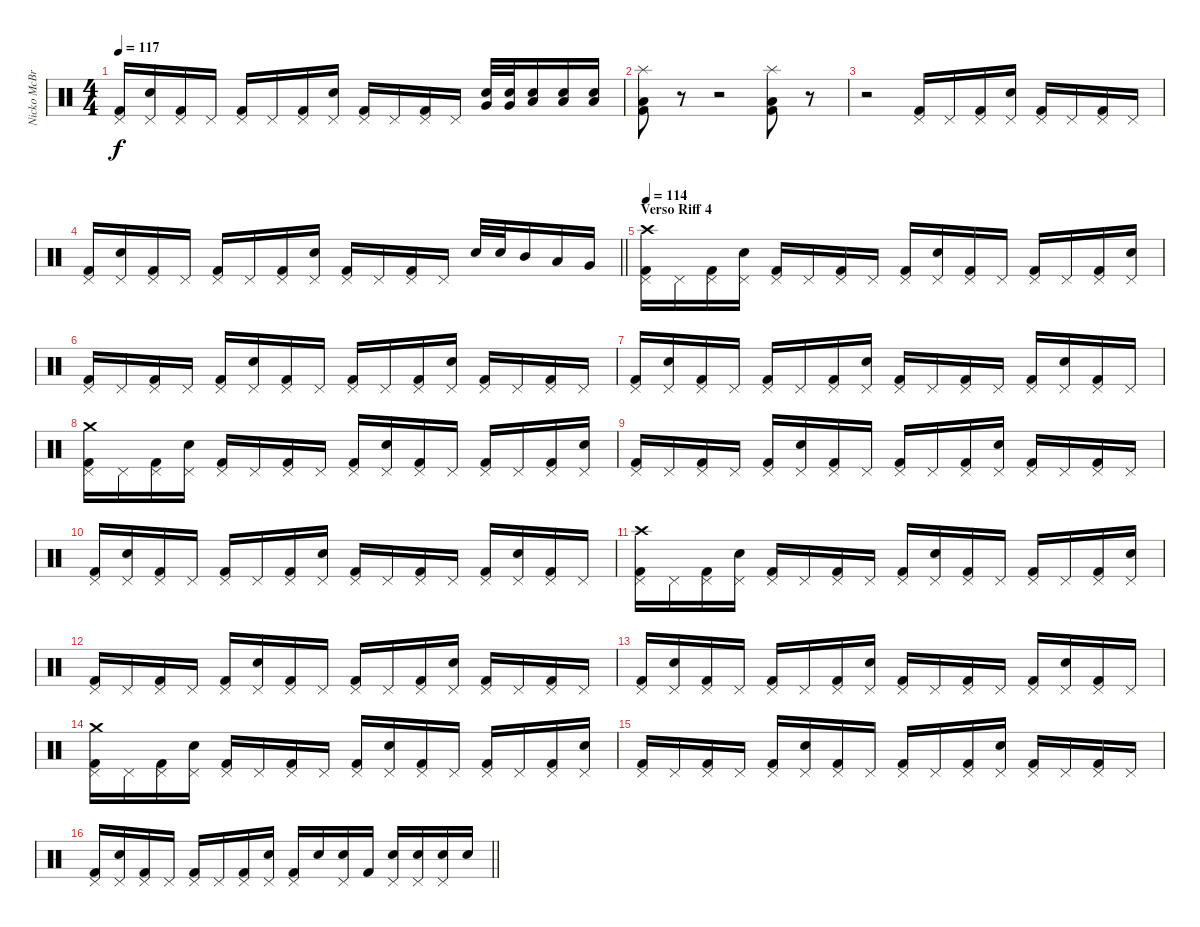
\track ("Nicko McBrain" "Nicko McBr") {instrument percussion}
\staff {score}
\articulation defaults
\ts (4 4)
\tempo 117
\clef neutral
\ks c
("Kick (hit) 2" "Pedal Hi-Hat (hit)").16{dy f} ("Snare (hit) 2" "Pedal Hi-Hat (hit)").16 ("Kick (hit) 2" "Pedal Hi-Hat (hit)").16 "Pedal Hi-Hat (hit)".16 ("Kick (hit) 2" "Pedal Hi-Hat (hit)").16 "Pedal Hi-Hat (hit)".16 ("Kick (hit) 2" "Pedal Hi-Hat (hit)").16 ("Snare (hit) 2" "Pedal Hi-Hat (hit)").16 ("Kick (hit) 2" "Pedal Hi-Hat (hit)").16 "Pedal Hi-Hat (hit)".16 ("Kick (hit) 2" "Pedal Hi-Hat (hit)").16 "Pedal Hi-Hat (hit)".16 ("Snare (hit) 2" "Very Low Tom (hit)").32 ("Snare (hit) 2" "Very Low Tom (hit)").32 ("Snare (hit) 2" "Low Floor Tom (hit)").16 ("Snare (hit) 2" "Low Tom (hit)").16 ("Snare (hit) 2" "Low Tom (hit)").16 |
("Low Floor Tom (hit)" "Kick (hit) 2" "Splash (hit)").8 r.8 r.2 ("Low Floor Tom (hit)" "Kick (hit) 2" "Splash (hit)").8 r.8 |
r.2 ("Kick (hit) 2" "Pedal Hi-Hat (hit)").16 "Pedal Hi-Hat (hit)".16 ("Kick (hit) 2" "Pedal Hi-Hat (hit)").16 ("Snare (hit) 2" "Pedal Hi-Hat (hit)").16 ("Kick (hit) 2" "Pedal Hi-Hat (hit)").16 "Pedal Hi-Hat (hit)".16 ("Kick (hit) 2" "Pedal Hi-Hat (hit)").16 "Pedal Hi-Hat (hit)".16 |
\barLineRight lightlight
("Kick (hit) 2" "Pedal Hi-Hat (hit)").16 ("Snare (hit) 2" "Pedal Hi-Hat (hit)").16 ("Kick (hit) 2" "Pedal Hi-Hat (hit)").16 "Pedal Hi-Hat (hit)".16 ("Kick (hit) 2" "Pedal Hi-Hat (hit)").16 "Pedal Hi-Hat (hit)".16 ("Kick (hit) 2" "Pedal Hi-Hat (hit)").16 ("Snare (hit) 2" "Pedal Hi-Hat (hit)").16 ("Kick (hit) 2" "Pedal Hi-Hat (hit)").16 "Pedal Hi-Hat (hit)".16 ("Kick (hit) 2" "Pedal Hi-Hat (hit)").16 "Pedal Hi-Hat (hit)".16 "Snare (hit) 2".32 "Snare (hit) 2".32 "Mid Tom (hit)".16 "Low Tom (hit)".16 "Very Low Tom (hit)".16 |
\section ("" "Verso Riff 4")
\tempo 114
("Kick (hit) 2" "Pedal Hi-Hat (hit)" "Crash high (hit)").16 "Pedal Hi-Hat (hit)".16 ("Kick (hit) 2" "Pedal Hi-Hat (hit)").16 ("Snare (hit) 2" "Pedal Hi-Hat (hit)").16 ("Kick (hit) 2" "Pedal Hi-Hat (hit)").16 "Pedal Hi-Hat (hit)".16 ("Kick (hit) 2" "Pedal Hi-Hat (hit)").16 "Pedal Hi-Hat (hit)".16 ("Kick (hit) 2" "Pedal Hi-Hat (hit)").16 ("Snare (hit) 2" "Pedal Hi-Hat (hit)").16 ("Kick (hit) 2" "Pedal Hi-Hat (hit)").16 "Pedal Hi-Hat (hit)".16 ("Kick (hit) 2" "Pedal Hi-Hat (hit)").16 "Pedal Hi-Hat (hit)".16 ("Kick (hit) 2" "Pedal Hi-Hat (hit)").16 ("Snare (hit) 2" "Pedal Hi-Hat (hit)").16 |
("Kick (hit) 2" "Pedal Hi-Hat (hit)").16 "Pedal Hi-Hat (hit)".16 ("Kick (hit) 2" "Pedal Hi-Hat (hit)").16 "Pedal Hi-Hat (hit)".16 ("Kick (hit) 2" "Pedal Hi-Hat (hit)").16 ("Snare (hit) 2" "Pedal Hi-Hat (hit)").16 ("Kick (hit) 2" "Pedal Hi-Hat (hit)").16 "Pedal Hi-Hat (hit)".16 ("Kick (hit) 2" "Pedal Hi-Hat (hit)").16 "Pedal Hi-Hat (hit)".16 ("Kick (hit) 2" "Pedal Hi-Hat (hit)").16 ("Snare (hit) 2" "Pedal Hi-Hat (hit)").16 ("Kick (hit) 2" "Pedal Hi-Hat (hit)").16 "Pedal Hi-Hat (hit)".16 ("Kick (hit) 2" "Pedal Hi-Hat (hit)").16 "Pedal Hi-Hat (hit)".16 |
("Kick (hit) 2" "Pedal Hi-Hat (hit)").16 ("Snare (hit) 2" "Pedal Hi-Hat (hit)").16 ("Kick (hit) 2" "Pedal Hi-Hat (hit)").16 "Pedal Hi-Hat (hit)".16 ("Kick (hit) 2" "Pedal Hi-Hat (hit)").16 "Pedal Hi-Hat (hit)".16 ("Kick (hit) 2" "Pedal Hi-Hat (hit)").16 ("Snare (hit) 2" "Pedal Hi-Hat (hit)").16 ("Kick (hit) 2" "Pedal Hi-Hat (hit)").16 "Pedal Hi-Hat (hit)".16 ("Kick (hit) 2" "Pedal Hi-Hat (hit)").16 "Pedal Hi-Hat (hit)".16 ("Kick (hit) 2" "Pedal Hi-Hat (hit)").16 ("Snare (hit) 2" "Pedal Hi-Hat (hit)").16 ("Kick (hit) 2" "Pedal Hi-Hat (hit)").16 "Pedal Hi-Hat (hit)".16 |
("Kick (hit) 2" "Pedal Hi-Hat (hit)" "Crash medium (hit)").16 "Pedal Hi-Hat (hit)".16 ("Kick (hit) 2" "Pedal Hi-Hat (hit)").16 ("Snare (hit) 2" "Pedal Hi-Hat (hit)").16 ("Kick (hit) 2" "Pedal Hi-Hat (hit)").16 "Pedal Hi-Hat (hit)".16 ("Kick (hit) 2" "Pedal Hi-Hat (hit)").16 "Pedal Hi-Hat (hit)".16 ("Kick (hit) 2" "Pedal Hi-Hat (hit)").16 ("Snare (hit) 2" "Pedal Hi-Hat (hit)").16 ("Kick (hit) 2" "Pedal Hi-Hat (hit)").16 "Pedal Hi-Hat (hit)".16 ("Kick (hit) 2" "Pedal Hi-Hat (hit)").16 "Pedal Hi-Hat (hit)".16 ("Kick (hit) 2" "Pedal Hi-Hat (hit)").16 ("Snare (hit) 2" "Pedal Hi-Hat (hit)").16 |
("Kick (hit) 2" "Pedal Hi-Hat (hit)").16 "Pedal Hi-Hat (hit)".16 ("Kick (hit) 2" "Pedal Hi-Hat (hit)").16 "Pedal Hi-Hat (hit)".16 ("Kick (hit) 2" "Pedal Hi-Hat (hit)").16 ("Snare (hit) 2" "Pedal Hi-Hat (hit)").16 ("Kick (hit) 2" "Pedal Hi-Hat (hit)").16 "Pedal Hi-Hat (hit)".16 ("Kick (hit) 2" "Pedal Hi-Hat (hit)").16 "Pedal Hi-Hat (hit)".16 ("Kick (hit) 2" "Pedal Hi-Hat (hit)").16 ("Snare (hit) 2" "Pedal Hi-Hat (hit)").16 ("Kick (hit) 2" "Pedal Hi-Hat (hit)").16 "Pedal Hi-Hat (hit)".16 ("Kick (hit) 2" "Pedal Hi-Hat (hit)").16 "Pedal Hi-Hat (hit)".16 |
("Kick (hit) 2" "Pedal Hi-Hat (hit)").16 ("Snare (hit) 2" "Pedal Hi-Hat (hit)").16 ("Kick (hit) 2" "Pedal Hi-Hat (hit)").16 "Pedal Hi-Hat (hit)".16 ("Kick (hit) 2" "Pedal Hi-Hat (hit)").16 "Pedal Hi-Hat (hit)".16 ("Kick (hit) 2" "Pedal Hi-Hat (hit)").16 ("Snare (hit) 2" "Pedal Hi-Hat (hit)").16 ("Kick (hit) 2" "Pedal Hi-Hat (hit)").16 "Pedal Hi-Hat (hit)".16 ("Kick (hit) 2" "Pedal Hi-Hat (hit)").16 "Pedal Hi-Hat (hit)".16 ("Kick (hit) 2" "Pedal Hi-Hat (hit)").16 ("Snare (hit) 2" "Pedal Hi-Hat (hit)").16 ("Kick (hit) 2" "Pedal Hi-Hat (hit)").16 "Pedal Hi-Hat (hit)".16 |
("Kick (hit) 2" "Pedal Hi-Hat (hit)" "Crash high (hit)").16 "Pedal Hi-Hat (hit)".16 ("Kick (hit) 2" "Pedal Hi-Hat (hit)").16 ("Snare (hit) 2" "Pedal Hi-Hat (hit)").16 ("Kick (hit) 2" "Pedal Hi-Hat (hit)").16 "Pedal Hi-Hat (hit)".16 ("Kick (hit) 2" "Pedal Hi-Hat (hit)").16 "Pedal Hi-Hat (hit)".16 ("Kick (hit) 2" "Pedal Hi-Hat (hit)").16 ("Snare (hit) 2" "Pedal Hi-Hat (hit)").16 ("Kick (hit) 2" "Pedal Hi-Hat (hit)").16 "Pedal Hi-Hat (hit)".16 ("Kick (hit) 2" "Pedal Hi-Hat (hit)").16 "Pedal Hi-Hat (hit)".16 ("Kick (hit) 2" "Pedal Hi-Hat (hit)").16 ("Snare (hit) 2" "Pedal Hi-Hat (hit)").16 |
("Kick (hit) 2" "Pedal Hi-Hat (hit)").16 "Pedal Hi-Hat (hit)".16 ("Kick (hit) 2" "Pedal Hi-Hat (hit)").16 "Pedal Hi-Hat (hit)".16 ("Kick (hit) 2" "Pedal Hi-Hat (hit)").16 ("Snare (hit) 2" "Pedal Hi-Hat (hit)").16 ("Kick (hit) 2" "Pedal Hi-Hat (hit)").16 "Pedal Hi-Hat (hit)".16 ("Kick (hit) 2" "Pedal Hi-Hat (hit)").16 "Pedal Hi-Hat (hit)".16 ("Kick (hit) 2" "Pedal Hi-Hat (hit)").16 ("Snare (hit) 2" "Pedal Hi-Hat (hit)").16 ("Kick (hit) 2" "Pedal Hi-Hat (hit)").16 "Pedal Hi-Hat (hit)".16 ("Kick (hit) 2" "Pedal Hi-Hat (hit)").16 "Pedal Hi-Hat (hit)".16 |
("Kick (hit) 2" "Pedal Hi-Hat (hit)").16 ("Snare (hit) 2" "Pedal Hi-Hat (hit)").16 ("Kick (hit) 2" "Pedal Hi-Hat (hit)").16 "Pedal Hi-Hat (hit)".16 ("Kick (hit) 2" "Pedal Hi-Hat (hit)").16 "Pedal Hi-Hat (hit)".16 ("Kick (hit) 2" "Pedal Hi-Hat (hit)").16 ("Snare (hit) 2" "Pedal Hi-Hat (hit)").16 ("Kick (hit) 2" "Pedal Hi-Hat (hit)").16 "Pedal Hi-Hat (hit)".16 ("Kick (hit) 2" "Pedal Hi-Hat (hit)").16 "Pedal Hi-Hat (hit)".16 ("Kick (hit) 2" "Pedal Hi-Hat (hit)").16 ("Snare (hit) 2" "Pedal Hi-Hat (hit)").16 ("Kick (hit) 2" "Pedal Hi-Hat (hit)").16 "Pedal Hi-Hat (hit)".16 |
("Kick (hit) 2" "Pedal Hi-Hat (hit)" "Crash medium (hit)").16 "Pedal Hi-Hat (hit)".16 ("Kick (hit) 2" "Pedal Hi-Hat (hit)").16 ("Snare (hit) 2" "Pedal Hi-Hat (hit)").16 ("Kick (hit) 2" "Pedal Hi-Hat (hit)").16 "Pedal Hi-Hat (hit)".16 ("Kick (hit) 2" "Pedal Hi-Hat (hit)").16 "Pedal Hi-Hat (hit)".16 ("Kick (hit) 2" "Pedal Hi-Hat (hit)").16 ("Snare (hit) 2" "Pedal Hi-Hat (hit)").16 ("Kick (hit) 2" "Pedal Hi-Hat (hit)").16 "Pedal Hi-Hat (hit)".16 ("Kick (hit) 2" "Pedal Hi-Hat (hit)").16 "Pedal Hi-Hat (hit)".16 ("Kick (hit) 2" "Pedal Hi-Hat (hit)").16 ("Snare (hit) 2" "Pedal Hi-Hat (hit)").16 |
("Kick (hit) 2" "Pedal Hi-Hat (hit)").16 "Pedal Hi-Hat (hit)".16 ("Kick (hit) 2" "Pedal Hi-Hat (hit)").16 "Pedal Hi-Hat (hit)".16 ("Kick (hit) 2" "Pedal Hi-Hat (hit)").16 ("Snare (hit) 2" "Pedal Hi-Hat (hit)").16 ("Kick (hit) 2" "Pedal Hi-Hat (hit)").16 "Pedal Hi-Hat (hit)".16 ("Kick (hit) 2" "Pedal Hi-Hat (hit)").16 "Pedal Hi-Hat (hit)".16 ("Kick (hit) 2" "Pedal Hi-Hat (hit)").16 ("Snare (hit) 2" "Pedal Hi-Hat (hit)").16 ("Kick (hit) 2" "Pedal Hi-Hat (hit)").16 "Pedal Hi-Hat (hit)".16 ("Kick (hit) 2" "Pedal Hi-Hat (hit)").16 "Pedal Hi-Hat (hit)".16 |
\barLineRight lightlight
("Kick (hit) 2" "Pedal Hi-Hat (hit)").16 ("Snare (hit) 2" "Pedal Hi-Hat (hit)").16 ("Kick (hit) 2" "Pedal Hi-Hat (hit)").16 "Pedal Hi-Hat (hit)".16 ("Kick (hit) 2" "Pedal Hi-Hat (hit)").16 "Pedal Hi-Hat (hit)".16 ("Kick (hit) 2" "Pedal Hi-Hat (hit)").16 ("Snare (hit) 2" "Pedal Hi-Hat (hit)").16 ("Kick (hit) 2" "Pedal Hi-Hat (hit)").16 "Snare (hit) 2".16 ("Snare (hit) 2" "Pedal Hi-Hat (hit)").16 "Kick (hit) 2".16 ("Snare (hit) 2" "Pedal Hi-Hat (hit)").16 ("Snare (hit) 2" "Pedal Hi-Hat (hit)").16 ("Snare (hit) 2" "Pedal Hi-Hat (hit)").16 "Snare (hit) 2".16
